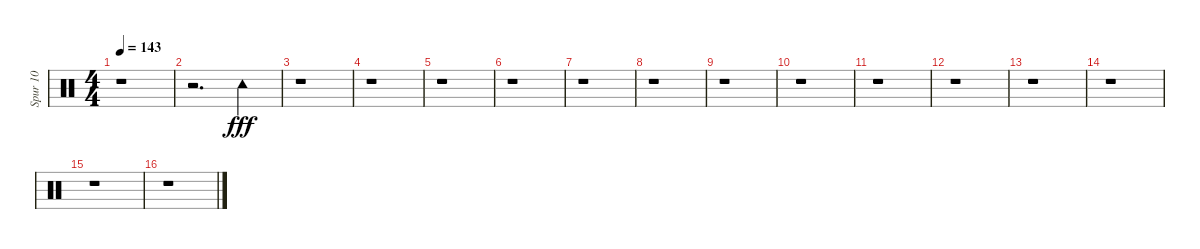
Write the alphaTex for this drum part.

\track ("Spur 10" "Spur 10") {instrument percussion}
\staff {score}
\articulation defaults
\ts (4 4)
\tempo 143
\clef neutral
\ks c
r.1{dy fff} |
r.2{d} "Tambourine (hit)".4 |
r.1 |
r.1 |
r.1 |
r.1 |
r.1 |
r.1 |
r.1 |
r.1 |
r.1 |
r.1 |
r.1 |
r.1 |
r.1 |
r.1
